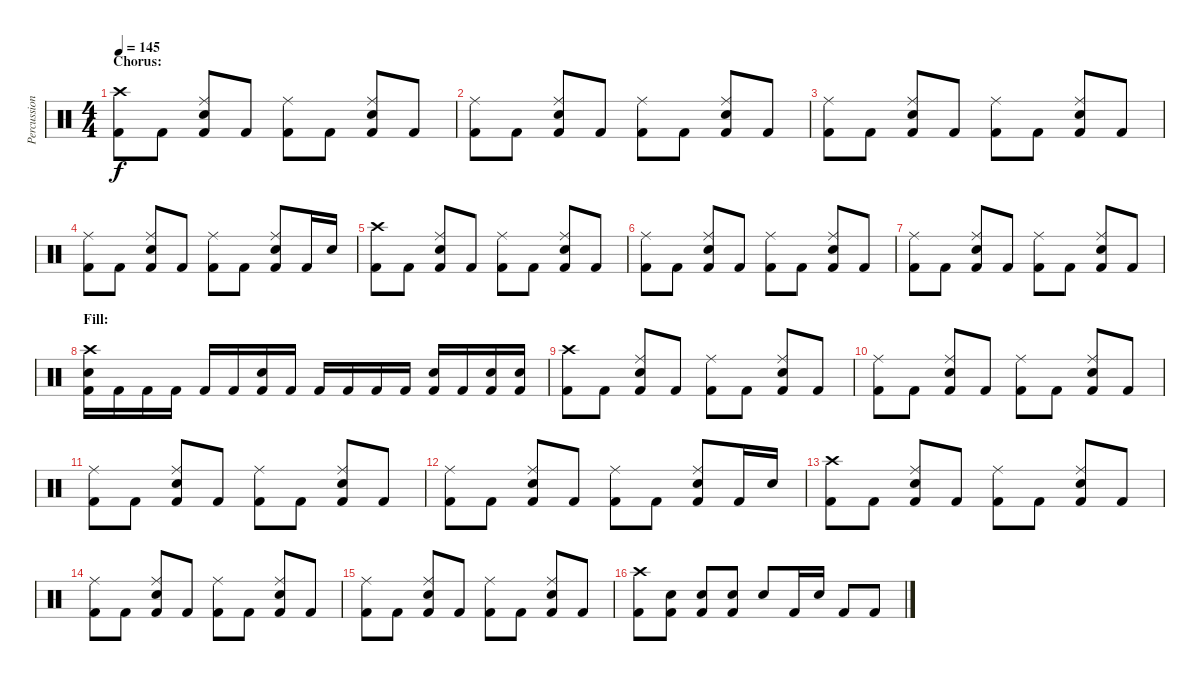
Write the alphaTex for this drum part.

\track ("Percussion" "Percussion") {instrument percussion}
\staff {score}
\articulation defaults
\ts (4 4)
\section ("" "Chorus:")
\tempo 145
\clef neutral
\ks c
("Crash high (hit)" "Kick (hit) 2").8{dy f} "Kick (hit) 2".8 ("Ride (middle)" "Electric Snare (hit)" "Kick (hit) 2").8 "Kick (hit) 2".8 ("Ride (middle)" "Kick (hit) 2").8 "Kick (hit) 2".8 ("Ride (middle)" "Electric Snare (hit)" "Kick (hit) 2").8 "Kick (hit) 2".8 |
("Ride (middle)" "Kick (hit) 2").8 "Kick (hit) 2".8 ("Ride (middle)" "Electric Snare (hit)" "Kick (hit) 2").8 "Kick (hit) 2".8 ("Ride (middle)" "Kick (hit) 2").8 "Kick (hit) 2".8 ("Ride (middle)" "Electric Snare (hit)" "Kick (hit) 2").8 "Kick (hit) 2".8 |
("Ride (middle)" "Kick (hit) 2").8 "Kick (hit) 2".8 ("Ride (middle)" "Electric Snare (hit)" "Kick (hit) 2").8 "Kick (hit) 2".8 ("Ride (middle)" "Kick (hit) 2").8 "Kick (hit) 2".8 ("Ride (middle)" "Electric Snare (hit)" "Kick (hit) 2").8 "Kick (hit) 2".8 |
("Ride (middle)" "Kick (hit) 2").8 "Kick (hit) 2".8 ("Ride (middle)" "Electric Snare (hit)" "Kick (hit) 2").8 "Kick (hit) 2".8 ("Ride (middle)" "Kick (hit) 2").8 "Kick (hit) 2".8 ("Ride (middle)" "Electric Snare (hit)" "Kick (hit) 2").8 "Kick (hit) 2".16 "Electric Snare (hit)".16 |
("Crash high (hit)" "Kick (hit) 2").8 "Kick (hit) 2".8 ("Ride (middle)" "Electric Snare (hit)" "Kick (hit) 2").8 "Kick (hit) 2".8 ("Ride (middle)" "Kick (hit) 2").8 "Kick (hit) 2".8 ("Ride (middle)" "Electric Snare (hit)" "Kick (hit) 2").8 "Kick (hit) 2".8 |
("Ride (middle)" "Kick (hit) 2").8 "Kick (hit) 2".8 ("Ride (middle)" "Electric Snare (hit)" "Kick (hit) 2").8 "Kick (hit) 2".8 ("Ride (middle)" "Kick (hit) 2").8 "Kick (hit) 2".8 ("Ride (middle)" "Electric Snare (hit)" "Kick (hit) 2").8 "Kick (hit) 2".8 |
("Ride (middle)" "Kick (hit) 2").8 "Kick (hit) 2".8 ("Ride (middle)" "Electric Snare (hit)" "Kick (hit) 2").8 "Kick (hit) 2".8 ("Ride (middle)" "Kick (hit) 2").8 "Kick (hit) 2".8 ("Ride (middle)" "Electric Snare (hit)" "Kick (hit) 2").8 "Kick (hit) 2".8 |
\section ("" "Fill:")
("Crash high (hit)" "Electric Snare (hit)" "Kick (hit) 2").16 "Kick (hit) 2".16 "Kick (hit) 2".16 "Kick (hit) 2".16 "Kick (hit) 2".16 "Kick (hit) 2".16 ("Electric Snare (hit)" "Kick (hit) 2").16 "Kick (hit) 2".16 "Kick (hit) 2".16 "Kick (hit) 2".16 "Kick (hit) 2".16 "Kick (hit) 2".16 ("Electric Snare (hit)" "Kick (hit) 2").16 "Kick (hit) 2".16 ("Electric Snare (hit)" "Kick (hit) 2").16 ("Electric Snare (hit)" "Kick (hit) 2").16 |
("Crash high (hit)" "Kick (hit) 2").8 "Kick (hit) 2".8 ("Ride (middle)" "Electric Snare (hit)" "Kick (hit) 2").8 "Kick (hit) 2".8 ("Ride (middle)" "Kick (hit) 2").8 "Kick (hit) 2".8 ("Ride (middle)" "Electric Snare (hit)" "Kick (hit) 2").8 "Kick (hit) 2".8 |
("Ride (middle)" "Kick (hit) 2").8 "Kick (hit) 2".8 ("Ride (middle)" "Electric Snare (hit)" "Kick (hit) 2").8 "Kick (hit) 2".8 ("Ride (middle)" "Kick (hit) 2").8 "Kick (hit) 2".8 ("Ride (middle)" "Electric Snare (hit)" "Kick (hit) 2").8 "Kick (hit) 2".8 |
("Ride (middle)" "Kick (hit) 2").8 "Kick (hit) 2".8 ("Ride (middle)" "Electric Snare (hit)" "Kick (hit) 2").8 "Kick (hit) 2".8 ("Ride (middle)" "Kick (hit) 2").8 "Kick (hit) 2".8 ("Ride (middle)" "Electric Snare (hit)" "Kick (hit) 2").8 "Kick (hit) 2".8 |
("Ride (middle)" "Kick (hit) 2").8 "Kick (hit) 2".8 ("Ride (middle)" "Electric Snare (hit)" "Kick (hit) 2").8 "Kick (hit) 2".8 ("Ride (middle)" "Kick (hit) 2").8 "Kick (hit) 2".8 ("Ride (middle)" "Electric Snare (hit)" "Kick (hit) 2").8 "Kick (hit) 2".16 "Electric Snare (hit)".16 |
("Crash high (hit)" "Kick (hit) 2").8 "Kick (hit) 2".8 ("Ride (middle)" "Electric Snare (hit)" "Kick (hit) 2").8 "Kick (hit) 2".8 ("Ride (middle)" "Kick (hit) 2").8 "Kick (hit) 2".8 ("Ride (middle)" "Electric Snare (hit)" "Kick (hit) 2").8 "Kick (hit) 2".8 |
("Ride (middle)" "Kick (hit) 2").8 "Kick (hit) 2".8 ("Ride (middle)" "Electric Snare (hit)" "Kick (hit) 2").8 "Kick (hit) 2".8 ("Ride (middle)" "Kick (hit) 2").8 "Kick (hit) 2".8 ("Ride (middle)" "Electric Snare (hit)" "Kick (hit) 2").8 "Kick (hit) 2".8 |
("Ride (middle)" "Kick (hit) 2").8 "Kick (hit) 2".8 ("Ride (middle)" "Electric Snare (hit)" "Kick (hit) 2").8 "Kick (hit) 2".8 ("Ride (middle)" "Kick (hit) 2").8 "Kick (hit) 2".8 ("Ride (middle)" "Electric Snare (hit)" "Kick (hit) 2").8 "Kick (hit) 2".8 |
("Crash high (hit)" "Kick (hit) 2").8 ("Electric Snare (hit)" "Kick (hit) 2").8 ("Electric Snare (hit)" "Kick (hit) 2").8 ("Electric Snare (hit)" "Kick (hit) 2").8 "Electric Snare (hit)".8 "Kick (hit) 2".16 "Electric Snare (hit)".16 "Kick (hit) 2".8 "Kick (hit) 2".8
